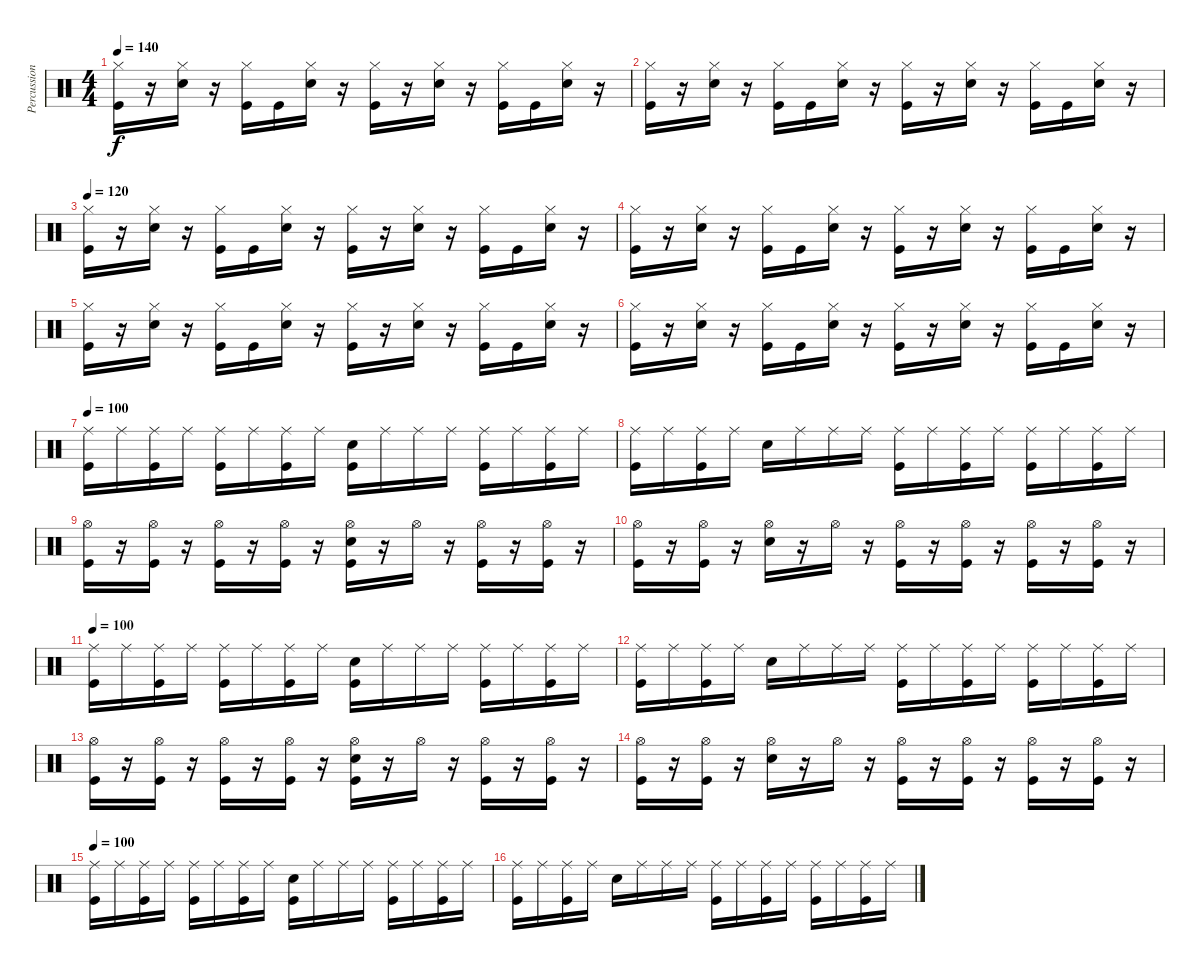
\track ("Percussion" "Percussion") {instrument percussion}
\staff {score}
\articulation defaults
\ts (4 4)
\tempo 140
\clef neutral
\ks c
("Hi-Hat (closed)" "Kick (hit)").16{dy f} r.16 ("Hi-Hat (closed)" "Snare (hit) 2").16 r.16 ("Hi-Hat (closed)" "Kick (hit)").16 "Kick (hit)".16 ("Hi-Hat (closed)" "Snare (hit) 2").16 r.16 ("Hi-Hat (closed)" "Kick (hit)").16 r.16 ("Hi-Hat (closed)" "Snare (hit) 2").16 r.16 ("Hi-Hat (closed)" "Kick (hit)").16 "Kick (hit)".16 ("Hi-Hat (closed)" "Snare (hit) 2").16 r.16 |
("Hi-Hat (closed)" "Kick (hit)").16 r.16 ("Hi-Hat (closed)" "Snare (hit) 2").16 r.16 ("Hi-Hat (closed)" "Kick (hit)").16 "Kick (hit)".16 ("Hi-Hat (closed)" "Snare (hit) 2").16 r.16 ("Hi-Hat (closed)" "Kick (hit)").16 r.16 ("Hi-Hat (closed)" "Snare (hit) 2").16 r.16 ("Hi-Hat (closed)" "Kick (hit)").16 "Kick (hit)".16 ("Hi-Hat (closed)" "Snare (hit) 2").16 r.16 |
\tempo 120
("Hi-Hat (closed)" "Kick (hit)").16 r.16 ("Hi-Hat (closed)" "Snare (hit) 2").16 r.16 ("Hi-Hat (closed)" "Kick (hit)").16 "Kick (hit)".16 ("Hi-Hat (closed)" "Snare (hit) 2").16 r.16 ("Hi-Hat (closed)" "Kick (hit)").16 r.16 ("Hi-Hat (closed)" "Snare (hit) 2").16 r.16 ("Hi-Hat (closed)" "Kick (hit)").16 "Kick (hit)".16 ("Hi-Hat (closed)" "Snare (hit) 2").16 r.16 |
("Hi-Hat (closed)" "Kick (hit)").16 r.16 ("Hi-Hat (closed)" "Snare (hit) 2").16 r.16 ("Hi-Hat (closed)" "Kick (hit)").16 "Kick (hit)".16 ("Hi-Hat (closed)" "Snare (hit) 2").16 r.16 ("Hi-Hat (closed)" "Kick (hit)").16 r.16 ("Hi-Hat (closed)" "Snare (hit) 2").16 r.16 ("Hi-Hat (closed)" "Kick (hit)").16 "Kick (hit)".16 ("Hi-Hat (closed)" "Snare (hit) 2").16 r.16 |
("Hi-Hat (closed)" "Kick (hit)").16 r.16 ("Hi-Hat (closed)" "Snare (hit) 2").16 r.16 ("Hi-Hat (closed)" "Kick (hit)").16 "Kick (hit)".16 ("Hi-Hat (closed)" "Snare (hit) 2").16 r.16 ("Hi-Hat (closed)" "Kick (hit)").16 r.16 ("Hi-Hat (closed)" "Snare (hit) 2").16 r.16 ("Hi-Hat (closed)" "Kick (hit)").16 "Kick (hit)".16 ("Hi-Hat (closed)" "Snare (hit) 2").16 r.16 |
("Hi-Hat (closed)" "Kick (hit)").16 r.16 ("Hi-Hat (closed)" "Snare (hit) 2").16 r.16 ("Hi-Hat (closed)" "Kick (hit)").16 "Kick (hit)".16 ("Hi-Hat (closed)" "Snare (hit) 2").16 r.16 ("Hi-Hat (closed)" "Kick (hit)").16 r.16 ("Hi-Hat (closed)" "Snare (hit) 2").16 r.16 ("Hi-Hat (closed)" "Kick (hit)").16 "Kick (hit)".16 ("Hi-Hat (closed)" "Snare (hit) 2").16 r.16 |
\tempo 100
("Ride (middle)" "Kick (hit)").16 "Ride (middle)".16 ("Ride (middle)" "Kick (hit)").16 "Ride (middle)".16 ("Ride (middle)" "Kick (hit)").16 "Ride (middle)".16 ("Ride (middle)" "Kick (hit)").16 "Ride (middle)".16 ("Snare (hit) 2" "Kick (hit)").16 "Ride (middle)".16 "Ride (middle)".16 "Ride (middle)".16 ("Ride (middle)" "Kick (hit)").16 "Ride (middle)".16 ("Ride (middle)" "Kick (hit)").16 "Ride (middle)".16 |
("Ride (middle)" "Kick (hit)").16 "Ride (middle)".16 ("Ride (middle)" "Kick (hit)").16 "Ride (middle)".16 "Snare (hit) 2".16 "Ride (middle)".16 "Ride (middle)".16 "Ride (middle)".16 ("Ride (middle)" "Kick (hit)").16 "Ride (middle)".16 ("Ride (middle)" "Kick (hit)").16 "Ride (middle)".16 ("Ride (middle)" "Kick (hit)").16 "Ride (middle)".16 ("Ride (middle)" "Kick (hit)").16 "Ride (middle)".16 |
("Hi-Hat (open)" "Kick (hit)").16 r.16 ("Hi-Hat (open)" "Kick (hit)").16 r.16 ("Hi-Hat (open)" "Kick (hit)").16 r.16 ("Hi-Hat (open)" "Kick (hit)").16 r.16 ("Hi-Hat (open)" "Snare (hit) 2" "Kick (hit)").16 r.16 "Hi-Hat (open)".16 r.16 ("Hi-Hat (open)" "Kick (hit)").16 r.16 ("Hi-Hat (open)" "Kick (hit)").16 r.16 |
("Hi-Hat (open)" "Kick (hit)").16 r.16 ("Hi-Hat (open)" "Kick (hit)").16 r.16 ("Hi-Hat (open)" "Snare (hit) 2").16 r.16 "Hi-Hat (open)".16 r.16 ("Hi-Hat (open)" "Kick (hit)").16 r.16 ("Hi-Hat (open)" "Kick (hit)").16 r.16 ("Hi-Hat (open)" "Kick (hit)").16 r.16 ("Hi-Hat (open)" "Kick (hit)").16 r.16 |
\tempo 100
("Ride (middle)" "Kick (hit)").16 "Ride (middle)".16 ("Ride (middle)" "Kick (hit)").16 "Ride (middle)".16 ("Ride (middle)" "Kick (hit)").16 "Ride (middle)".16 ("Ride (middle)" "Kick (hit)").16 "Ride (middle)".16 ("Snare (hit) 2" "Kick (hit)").16 "Ride (middle)".16 "Ride (middle)".16 "Ride (middle)".16 ("Ride (middle)" "Kick (hit)").16 "Ride (middle)".16 ("Ride (middle)" "Kick (hit)").16 "Ride (middle)".16 |
("Ride (middle)" "Kick (hit)").16 "Ride (middle)".16 ("Ride (middle)" "Kick (hit)").16 "Ride (middle)".16 "Snare (hit) 2".16 "Ride (middle)".16 "Ride (middle)".16 "Ride (middle)".16 ("Ride (middle)" "Kick (hit)").16 "Ride (middle)".16 ("Ride (middle)" "Kick (hit)").16 "Ride (middle)".16 ("Ride (middle)" "Kick (hit)").16 "Ride (middle)".16 ("Ride (middle)" "Kick (hit)").16 "Ride (middle)".16 |
("Hi-Hat (open)" "Kick (hit)").16 r.16 ("Hi-Hat (open)" "Kick (hit)").16 r.16 ("Hi-Hat (open)" "Kick (hit)").16 r.16 ("Hi-Hat (open)" "Kick (hit)").16 r.16 ("Hi-Hat (open)" "Snare (hit) 2" "Kick (hit)").16 r.16 "Hi-Hat (open)".16 r.16 ("Hi-Hat (open)" "Kick (hit)").16 r.16 ("Hi-Hat (open)" "Kick (hit)").16 r.16 |
("Hi-Hat (open)" "Kick (hit)").16 r.16 ("Hi-Hat (open)" "Kick (hit)").16 r.16 ("Hi-Hat (open)" "Snare (hit) 2").16 r.16 "Hi-Hat (open)".16 r.16 ("Hi-Hat (open)" "Kick (hit)").16 r.16 ("Hi-Hat (open)" "Kick (hit)").16 r.16 ("Hi-Hat (open)" "Kick (hit)").16 r.16 ("Hi-Hat (open)" "Kick (hit)").16 r.16 |
\tempo 100
("Ride (middle)" "Kick (hit)").16 "Ride (middle)".16 ("Ride (middle)" "Kick (hit)").16 "Ride (middle)".16 ("Ride (middle)" "Kick (hit)").16 "Ride (middle)".16 ("Ride (middle)" "Kick (hit)").16 "Ride (middle)".16 ("Snare (hit) 2" "Kick (hit)").16 "Ride (middle)".16 "Ride (middle)".16 "Ride (middle)".16 ("Ride (middle)" "Kick (hit)").16 "Ride (middle)".16 ("Ride (middle)" "Kick (hit)").16 "Ride (middle)".16 |
("Ride (middle)" "Kick (hit)").16 "Ride (middle)".16 ("Ride (middle)" "Kick (hit)").16 "Ride (middle)".16 "Snare (hit) 2".16 "Ride (middle)".16 "Ride (middle)".16 "Ride (middle)".16 ("Ride (middle)" "Kick (hit)").16 "Ride (middle)".16 ("Ride (middle)" "Kick (hit)").16 "Ride (middle)".16 ("Ride (middle)" "Kick (hit)").16 "Ride (middle)".16 ("Ride (middle)" "Kick (hit)").16 "Ride (middle)".16
